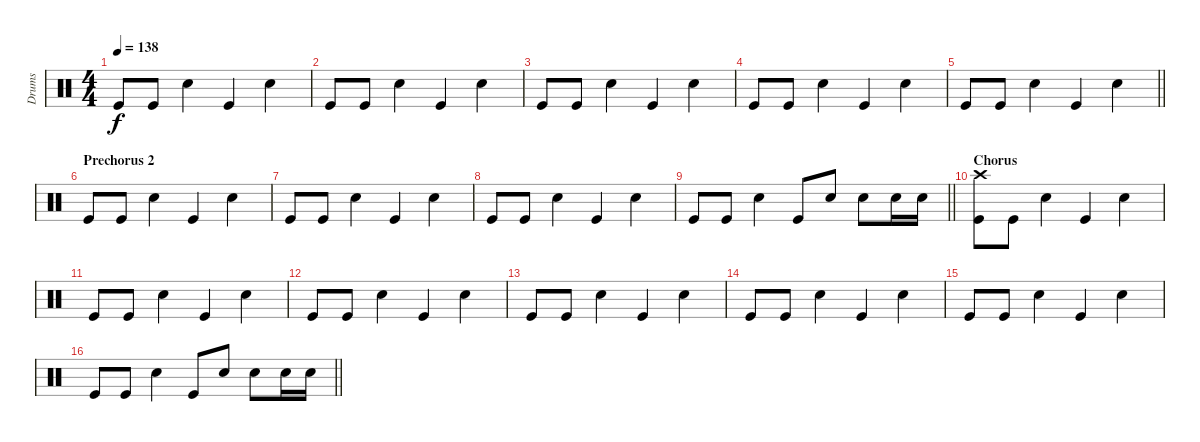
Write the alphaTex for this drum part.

\track ("Drums" "Drums") {instrument percussion}
\staff {score}
\articulation defaults
\ts (4 4)
\tempo 138
\clef neutral
\ks c "Kick (hit)".8{dy f} "Kick (hit)".8 "Snare (hit) 2".4 "Kick (hit)".4 "Snare (hit) 2".4
|
"Kick (hit)".8 "Kick (hit)".8 "Snare (hit) 2".4 "Kick (hit)".4 "Snare (hit) 2".4 |
"Kick (hit)".8 "Kick (hit)".8 "Snare (hit) 2".4 "Kick (hit)".4 "Snare (hit) 2".4 |
"Kick (hit)".8 "Kick (hit)".8 "Snare (hit) 2".4 "Kick (hit)".4 "Snare (hit) 2".4 |
\barLineRight lightlight "Kick (hit)".8 "Kick (hit)".8 "Snare (hit) 2".4 "Kick (hit)".4 "Snare (hit) 2".4
|
\section ("" "Prechorus 2")
"Kick (hit)".8 "Kick (hit)".8 "Snare (hit) 2".4 "Kick (hit)".4 "Snare (hit) 2".4 |
"Kick (hit)".8 "Kick (hit)".8 "Snare (hit) 2".4 "Kick (hit)".4 "Snare (hit) 2".4 |
"Kick (hit)".8 "Kick (hit)".8 "Snare (hit) 2".4 "Kick (hit)".4 "Snare (hit) 2".4 |
\barLineRight lightlight "Kick (hit)".8 "Kick (hit)".8 "Snare (hit) 2".4 "Kick (hit)".8 "Snare (hit) 2".8 "Snare (hit) 2".8 "Snare (hit) 2".16 "Snare (hit) 2".16
|
\section ("" "Chorus")
("Crash high (hit)" "Kick (hit)").8 "Kick (hit)".8 "Snare (hit) 2".4 "Kick (hit)".4 "Snare (hit) 2".4 |
"Kick (hit)".8 "Kick (hit)".8 "Snare (hit) 2".4 "Kick (hit)".4 "Snare (hit) 2".4 |
"Kick (hit)".8 "Kick (hit)".8 "Snare (hit) 2".4 "Kick (hit)".4 "Snare (hit) 2".4 |
"Kick (hit)".8 "Kick (hit)".8 "Snare (hit) 2".4 "Kick (hit)".4 "Snare (hit) 2".4 |
"Kick (hit)".8 "Kick (hit)".8 "Snare (hit) 2".4 "Kick (hit)".4 "Snare (hit) 2".4 |
"Kick (hit)".8 "Kick (hit)".8 "Snare (hit) 2".4 "Kick (hit)".4 "Snare (hit) 2".4 |
\barLineRight lightlight "Kick (hit)".8 "Kick (hit)".8 "Snare (hit) 2".4 "Kick (hit)".8 "Snare (hit) 2".8 "Snare (hit) 2".8 "Snare (hit) 2".16 "Snare (hit) 2".16
